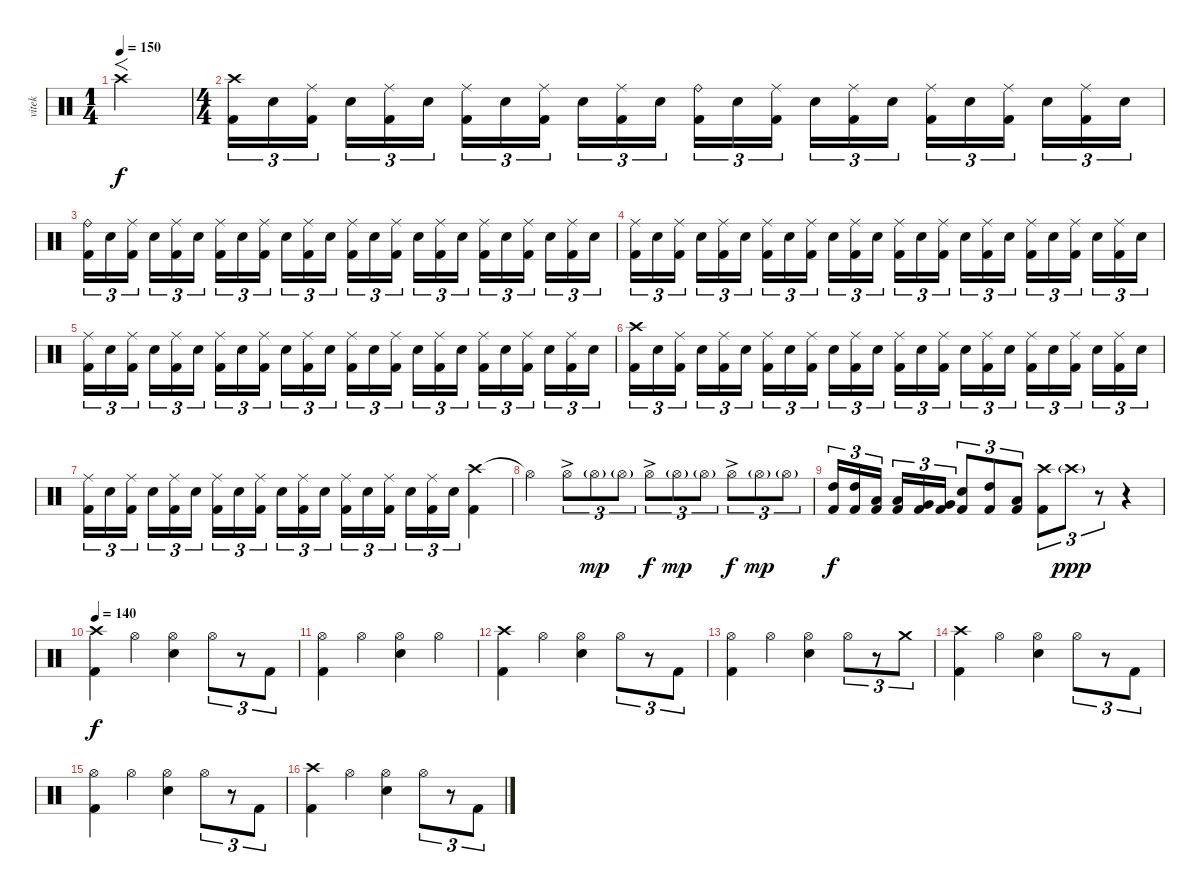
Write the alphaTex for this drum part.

\track ("vitek" "vitek") {instrument percussion}
\staff {score}
\articulation defaults
\ts (1 4)
\tempo 150
\clef neutral
\ks c "Crash high (hit)".4{f dy f}
|
\ts (4 4)
\section ("" "")
("Crash high (hit)" "Kick (hit) 2").16{tu (3 2)} "Electric Snare (hit)".16{tu (3 2)} ("Ride (middle)" "Kick (hit) 2").16{tu (3 2)} "Electric Snare (hit)".16{tu (3 2)} ("Ride (middle)" "Kick (hit) 2").16{tu (3 2)} "Electric Snare (hit)".16{tu (3 2)} ("Ride (middle)" "Kick (hit) 2").16{tu (3 2)} "Electric Snare (hit)".16{tu (3 2)} ("Ride (middle)" "Kick (hit) 2").16{tu (3 2)} "Electric Snare (hit)".16{tu (3 2)} ("Ride (middle)" "Kick (hit) 2").16{tu (3 2)} "Electric Snare (hit)".16{tu (3 2)} ("Ride (bell)" "Kick (hit) 2").16{tu (3 2)} "Electric Snare (hit)".16{tu (3 2)} ("Ride (middle)" "Kick (hit) 2").16{tu (3 2)} "Electric Snare (hit)".16{tu (3 2)} ("Ride (middle)" "Kick (hit) 2").16{tu (3 2)} "Electric Snare (hit)".16{tu (3 2)} ("Ride (middle)" "Kick (hit) 2").16{tu (3 2)} "Electric Snare (hit)".16{tu (3 2)} ("Ride (middle)" "Kick (hit) 2").16{tu (3 2)} "Electric Snare (hit)".16{tu (3 2)} ("Ride (middle)" "Kick (hit) 2").16{tu (3 2)} "Electric Snare (hit)".16{tu (3 2)} |
("Ride (bell)" "Kick (hit) 2").16{tu (3 2)} "Electric Snare (hit)".16{tu (3 2)} ("Ride (middle)" "Kick (hit) 2").16{tu (3 2)} "Electric Snare (hit)".16{tu (3 2)} ("Ride (middle)" "Kick (hit) 2").16{tu (3 2)} "Electric Snare (hit)".16{tu (3 2)} ("Ride (middle)" "Kick (hit) 2").16{tu (3 2)} "Electric Snare (hit)".16{tu (3 2)} ("Ride (middle)" "Kick (hit) 2").16{tu (3 2)} "Electric Snare (hit)".16{tu (3 2)} ("Ride (middle)" "Kick (hit) 2").16{tu (3 2)} "Electric Snare (hit)".16{tu (3 2)} ("Ride (middle)" "Kick (hit) 2").16{tu (3 2)} "Electric Snare (hit)".16{tu (3 2)} ("Ride (middle)" "Kick (hit) 2").16{tu (3 2)} "Electric Snare (hit)".16{tu (3 2)} ("Ride (middle)" "Kick (hit) 2").16{tu (3 2)} "Electric Snare (hit)".16{tu (3 2)} ("Ride (middle)" "Kick (hit) 2").16{tu (3 2)} "Electric Snare (hit)".16{tu (3 2)} ("Ride (middle)" "Kick (hit) 2").16{tu (3 2)} "Electric Snare (hit)".16{tu (3 2)} ("Ride (middle)" "Kick (hit) 2").16{tu (3 2)} "Electric Snare (hit)".16{tu (3 2)} |
("Ride (middle)" "Kick (hit) 2").16{tu (3 2)} "Electric Snare (hit)".16{tu (3 2)} ("Ride (middle)" "Kick (hit) 2").16{tu (3 2)} "Electric Snare (hit)".16{tu (3 2)} ("Ride (middle)" "Kick (hit) 2").16{tu (3 2)} "Electric Snare (hit)".16{tu (3 2)} ("Ride (middle)" "Kick (hit) 2").16{tu (3 2)} "Electric Snare (hit)".16{tu (3 2)} ("Ride (middle)" "Kick (hit) 2").16{tu (3 2)} "Electric Snare (hit)".16{tu (3 2)} ("Ride (middle)" "Kick (hit) 2").16{tu (3 2)} "Electric Snare (hit)".16{tu (3 2)} ("Ride (middle)" "Kick (hit) 2").16{tu (3 2)} "Electric Snare (hit)".16{tu (3 2)} ("Ride (middle)" "Kick (hit) 2").16{tu (3 2)} "Electric Snare (hit)".16{tu (3 2)} ("Ride (middle)" "Kick (hit) 2").16{tu (3 2)} "Electric Snare (hit)".16{tu (3 2)} ("Ride (middle)" "Kick (hit) 2").16{tu (3 2)} "Electric Snare (hit)".16{tu (3 2)} ("Ride (middle)" "Kick (hit) 2").16{tu (3 2)} "Electric Snare (hit)".16{tu (3 2)} ("Ride (middle)" "Kick (hit) 2").16{tu (3 2)} "Electric Snare (hit)".16{tu (3 2)} |
("Ride (middle)" "Kick (hit) 2").16{tu (3 2)} "Electric Snare (hit)".16{tu (3 2)} ("Ride (middle)" "Kick (hit) 2").16{tu (3 2)} "Electric Snare (hit)".16{tu (3 2)} ("Ride (middle)" "Kick (hit) 2").16{tu (3 2)} "Electric Snare (hit)".16{tu (3 2)} ("Ride (middle)" "Kick (hit) 2").16{tu (3 2)} "Electric Snare (hit)".16{tu (3 2)} ("Ride (middle)" "Kick (hit) 2").16{tu (3 2)} "Electric Snare (hit)".16{tu (3 2)} ("Ride (middle)" "Kick (hit) 2").16{tu (3 2)} "Electric Snare (hit)".16{tu (3 2)} ("Ride (middle)" "Kick (hit) 2").16{tu (3 2)} "Electric Snare (hit)".16{tu (3 2)} ("Ride (middle)" "Kick (hit) 2").16{tu (3 2)} "Electric Snare (hit)".16{tu (3 2)} ("Ride (middle)" "Kick (hit) 2").16{tu (3 2)} "Electric Snare (hit)".16{tu (3 2)} ("Ride (middle)" "Kick (hit) 2").16{tu (3 2)} "Electric Snare (hit)".16{tu (3 2)} ("Ride (middle)" "Kick (hit) 2").16{tu (3 2)} "Electric Snare (hit)".16{tu (3 2)} ("Ride (middle)" "Kick (hit) 2").16{tu (3 2)} "Electric Snare (hit)".16{tu (3 2)} |
("Crash high (hit)" "Kick (hit) 2").16{tu (3 2)} "Electric Snare (hit)".16{tu (3 2)} ("Ride (middle)" "Kick (hit) 2").16{tu (3 2)} "Electric Snare (hit)".16{tu (3 2)} ("Ride (middle)" "Kick (hit) 2").16{tu (3 2)} "Electric Snare (hit)".16{tu (3 2)} ("Ride (middle)" "Kick (hit) 2").16{tu (3 2)} "Electric Snare (hit)".16{tu (3 2)} ("Ride (middle)" "Kick (hit) 2").16{tu (3 2)} "Electric Snare (hit)".16{tu (3 2)} ("Ride (middle)" "Kick (hit) 2").16{tu (3 2)} "Electric Snare (hit)".16{tu (3 2)} ("Ride (middle)" "Kick (hit) 2").16{tu (3 2)} "Electric Snare (hit)".16{tu (3 2)} ("Ride (middle)" "Kick (hit) 2").16{tu (3 2)} "Electric Snare (hit)".16{tu (3 2)} ("Ride (middle)" "Kick (hit) 2").16{tu (3 2)} "Electric Snare (hit)".16{tu (3 2)} ("Ride (middle)" "Kick (hit) 2").16{tu (3 2)} "Electric Snare (hit)".16{tu (3 2)} ("Ride (middle)" "Kick (hit) 2").16{tu (3 2)} "Electric Snare (hit)".16{tu (3 2)} ("Ride (middle)" "Kick (hit) 2").16{tu (3 2)} "Electric Snare (hit)".16{tu (3 2)} |
("Ride (middle)" "Kick (hit) 2").16{tu (3 2)} "Electric Snare (hit)".16{tu (3 2)} ("Ride (middle)" "Kick (hit) 2").16{tu (3 2)} "Electric Snare (hit)".16{tu (3 2)} ("Ride (middle)" "Kick (hit) 2").16{tu (3 2)} "Electric Snare (hit)".16{tu (3 2)} ("Ride (middle)" "Kick (hit) 2").16{tu (3 2)} "Electric Snare (hit)".16{tu (3 2)} ("Ride (middle)" "Kick (hit) 2").16{tu (3 2)} "Electric Snare (hit)".16{tu (3 2)} ("Ride (middle)" "Kick (hit) 2").16{tu (3 2)} "Electric Snare (hit)".16{tu (3 2)} ("Ride (middle)" "Kick (hit) 2").16{tu (3 2)} "Electric Snare (hit)".16{tu (3 2)} ("Ride (middle)" "Kick (hit) 2").16{tu (3 2)} "Electric Snare (hit)".16{tu (3 2)} ("Ride (middle)" "Kick (hit) 2").16{tu (3 2)} "Electric Snare (hit)".16{tu (3 2)} ("Crash high (hit)" "Kick (hit) 2").4 |
"Hi-Hat (open)"{t}.4 "Hi-Hat (open)"{ac}.8{tu (3 2)} "Hi-Hat (open)"{g}.8{tu (3 2) dy mp} "Hi-Hat (open)"{g}.8{tu (3 2)} "Hi-Hat (open)"{ac}.8{tu (3 2) dy f} "Hi-Hat (open)"{g}.8{tu (3 2) dy mp} "Hi-Hat (open)"{g}.8{tu (3 2)} "Hi-Hat (open)"{ac}.8{tu (3 2) dy f} "Hi-Hat (open)"{g}.8{tu (3 2) dy mp} "Hi-Hat (open)"{g}.8{tu (3 2)} |
("High Tom (hit)" "Kick (hit) 2").16{tu (3 2) dy f} ("High Tom (hit)" "Kick (hit) 2").16{tu (3 2)} ("Low Tom (hit)" "Kick (hit) 2").16{tu (3 2)} ("Low Tom (hit)" "Kick (hit) 2").16{tu (3 2)} ("Very Low Tom (hit)" "Kick (hit) 2").16{tu (3 2)} ("Very Low Tom (hit)" "Kick (hit) 2").16{tu (3 2)} ("Electric Snare (hit)" "Kick (hit) 2").8{tu (3 2)} ("High Tom (hit)" "Kick (hit) 2").8{tu (3 2)} ("Low Tom (hit)" "Kick (hit) 2").8{tu (3 2)} ("Crash high (hit)" "Kick (hit) 2").8{tu (3 2)} "Crash high (hit)"{g}.8{tu (3 2) dy ppp} r.8{tu (3 2)} r.4 |
\section ("" "")
\tempo 140
("Crash high (hit)" "Kick (hit) 2").4{dy f} "Hi-Hat (open)".4 ("Hi-Hat (open)" "Electric Snare (hit)").4 "Hi-Hat (open)".8{tu (3 2)} r.8{tu (3 2)} "Kick (hit) 2".8{tu (3 2)} |
("Hi-Hat (open)" "Kick (hit) 2").4 "Hi-Hat (open)".4 ("Hi-Hat (open)" "Electric Snare (hit)").4 "Hi-Hat (open)".4 |
("Crash high (hit)" "Kick (hit) 2").4 "Hi-Hat (open)".4 ("Hi-Hat (open)" "Electric Snare (hit)").4 "Hi-Hat (open)".8{tu (3 2)} r.8{tu (3 2)} "Kick (hit) 2".8{tu (3 2)} |
("Hi-Hat (open)" "Kick (hit) 2").4 "Hi-Hat (open)".4 ("Hi-Hat (open)" "Electric Snare (hit)").4 "Hi-Hat (open)".8{tu (3 2)} r.8{tu (3 2)} "Crash medium (hit)".8{tu (3 2)} |
("Crash high (hit)" "Kick (hit) 2").4 "Hi-Hat (open)".4 ("Hi-Hat (open)" "Electric Snare (hit)").4 "Hi-Hat (open)".8{tu (3 2)} r.8{tu (3 2)} "Kick (hit) 2".8{tu (3 2)} |
("Hi-Hat (open)" "Kick (hit) 2").4 "Hi-Hat (open)".4 ("Hi-Hat (open)" "Electric Snare (hit)").4 "Hi-Hat (open)".8{tu (3 2)} r.8{tu (3 2)} "Kick (hit) 2".8{tu (3 2)} |
("Crash high (hit)" "Kick (hit) 2").4 "Hi-Hat (open)".4 ("Hi-Hat (open)" "Electric Snare (hit)").4 "Hi-Hat (open)".8{tu (3 2)} r.8{tu (3 2)} "Kick (hit) 2".8{tu (3 2)}
